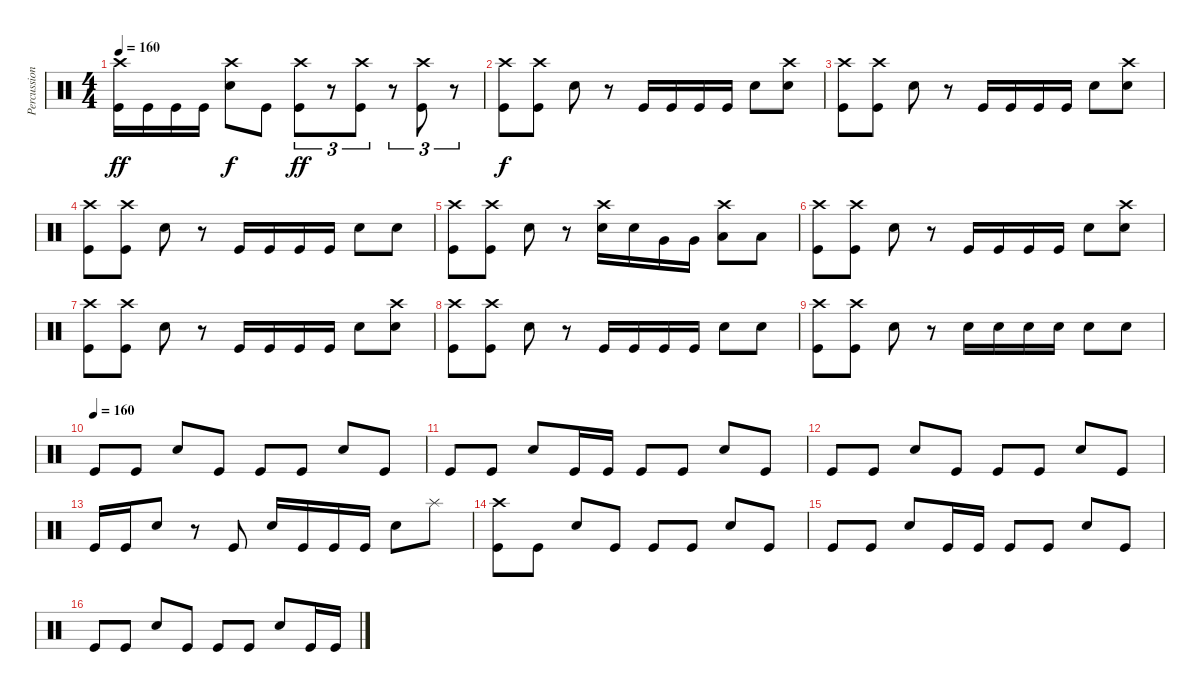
\track ("Percussion" "Percussion") {instrument percussion}
\staff {score}
\articulation defaults
\ts (4 4)
\tempo 160
\clef neutral
\ks c
("Crash high (hit)" "Kick (hit)").16{dy ff} "Kick (hit)".16 "Kick (hit)".16 "Kick (hit)".16 ("Crash high (hit)" "Electric Snare (hit)").8{dy f} "Kick (hit)".8 ("Crash high (hit)" "Kick (hit)").8{tu (3 2) dy ff} r.8{tu (3 2)} ("Crash high (hit)" "Kick (hit)").8{tu (3 2)} r.8{tu (3 2)} ("Crash high (hit)" "Kick (hit)").8{tu (3 2)} r.8{tu (3 2)} |
("Crash high (hit)" "Kick (hit)").8{dy f} ("Crash high (hit)" "Kick (hit)").8 "Electric Snare (hit)".8 r.8 "Kick (hit)".16 "Kick (hit)".16 "Kick (hit)".16 "Kick (hit)".16 "Electric Snare (hit)".8 ("Crash high (hit)" "Electric Snare (hit)").8 |
("Crash high (hit)" "Kick (hit)").8 ("Crash high (hit)" "Kick (hit)").8 "Electric Snare (hit)".8 r.8 "Kick (hit)".16 "Kick (hit)".16 "Kick (hit)".16 "Kick (hit)".16 "Electric Snare (hit)".8 ("Crash high (hit)" "Electric Snare (hit)").8 |
("Crash high (hit)" "Kick (hit)").8 ("Crash high (hit)" "Kick (hit)").8 "Electric Snare (hit)".8 r.8 "Kick (hit)".16 "Kick (hit)".16 "Kick (hit)".16 "Kick (hit)".16 "Electric Snare (hit)".8 "Electric Snare (hit)".8 |
("Crash high (hit)" "Kick (hit)").8 ("Crash high (hit)" "Kick (hit)").8 "Electric Snare (hit)".8 r.8 ("Crash high (hit)" "Electric Snare (hit)").16 "Electric Snare (hit)".16 "Very Low Tom (hit)".16 "Very Low Tom (hit)".16 ("Crash high (hit)" "Low Floor Tom (hit)").8 "Low Floor Tom (hit)".8 |
("Crash high (hit)" "Kick (hit)").8 ("Crash high (hit)" "Kick (hit)").8 "Electric Snare (hit)".8 r.8 "Kick (hit)".16 "Kick (hit)".16 "Kick (hit)".16 "Kick (hit)".16 "Electric Snare (hit)".8 ("Crash high (hit)" "Electric Snare (hit)").8 |
("Crash high (hit)" "Kick (hit)").8 ("Crash high (hit)" "Kick (hit)").8 "Electric Snare (hit)".8 r.8 "Kick (hit)".16 "Kick (hit)".16 "Kick (hit)".16 "Kick (hit)".16 "Electric Snare (hit)".8 ("Crash high (hit)" "Electric Snare (hit)").8 |
("Crash high (hit)" "Kick (hit)").8 ("Crash high (hit)" "Kick (hit)").8 "Electric Snare (hit)".8 r.8 "Kick (hit)".16 "Kick (hit)".16 "Kick (hit)".16 "Kick (hit)".16 "Electric Snare (hit)".8 "Electric Snare (hit)".8 |
("Crash high (hit)" "Kick (hit)").8 ("Crash high (hit)" "Kick (hit)").8 "Electric Snare (hit)".8 r.8 "Electric Snare (hit)".16 "Electric Snare (hit)".16 "Electric Snare (hit)".16 "Electric Snare (hit)".16 "Electric Snare (hit)".8 "Electric Snare (hit)".8 |
\tempo (160)
"Kick (hit)".8 "Kick (hit)".8 "Electric Snare (hit)".8 "Kick (hit)".8 "Kick (hit)".8 "Kick (hit)".8 "Electric Snare (hit)".8 "Kick (hit)".8 |
"Kick (hit)".8 "Kick (hit)".8 "Electric Snare (hit)".8 "Kick (hit)".16 "Kick (hit)".16 "Kick (hit)".8 "Kick (hit)".8 "Electric Snare (hit)".8 "Kick (hit)".8 |
"Kick (hit)".8 "Kick (hit)".8 "Electric Snare (hit)".8 "Kick (hit)".8 "Kick (hit)".8 "Kick (hit)".8 "Electric Snare (hit)".8 "Kick (hit)".8 |
"Kick (hit)".16 "Kick (hit)".16 "Electric Snare (hit)".8 r.8 "Kick (hit)".8 "Electric Snare (hit)".16 "Kick (hit)".16 "Kick (hit)".16 "Kick (hit)".16 "Electric Snare (hit)".8 "Splash (hit)".8 |
("Crash high (hit)" "Kick (hit)").8 "Kick (hit)".8 "Electric Snare (hit)".8 "Kick (hit)".8 "Kick (hit)".8 "Kick (hit)".8 "Electric Snare (hit)".8 "Kick (hit)".8 |
"Kick (hit)".8 "Kick (hit)".8 "Electric Snare (hit)".8 "Kick (hit)".16 "Kick (hit)".16 "Kick (hit)".8 "Kick (hit)".8 "Electric Snare (hit)".8 "Kick (hit)".8 |
"Kick (hit)".8 "Kick (hit)".8 "Electric Snare (hit)".8 "Kick (hit)".8 "Kick (hit)".8 "Kick (hit)".8 "Electric Snare (hit)".8 "Kick (hit)".16 "Kick (hit)".16
